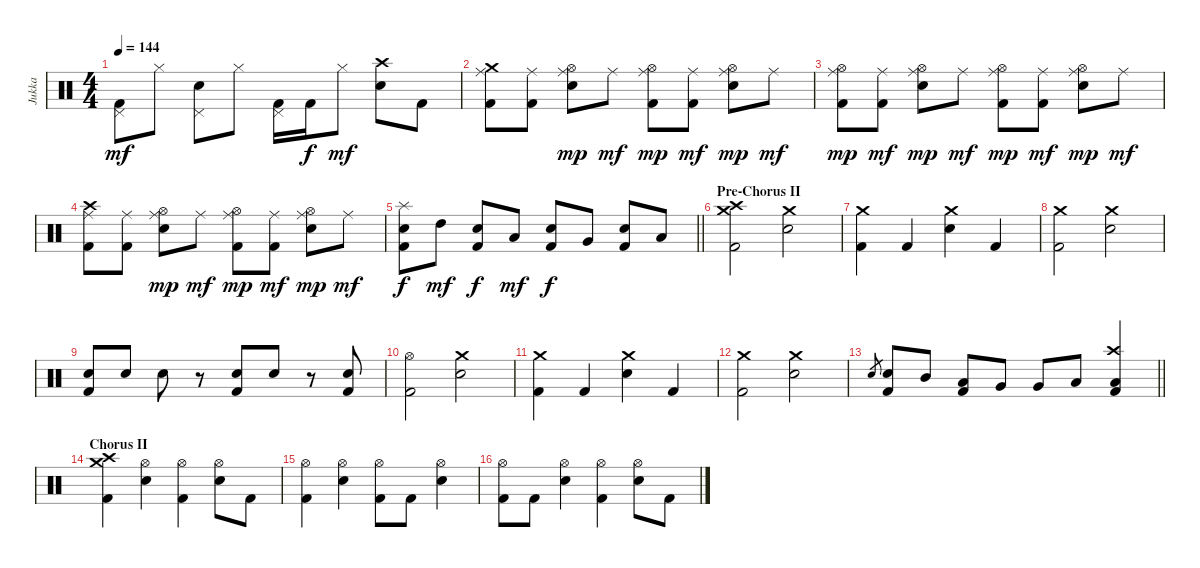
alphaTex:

\track ("Jukka" "Jukka") {instrument percussion}
\staff {score}
\articulation defaults
\ts (4 4)
\tempo 144
\clef neutral
\ks c
("Pedal Hi-Hat (hit)" "Kick (hit) 2").8{dy mf} "Hi-Hat (closed)".8 ("Pedal Hi-Hat (hit)" "Electric Snare (hit)").8 "Hi-Hat (closed)".8 ("Pedal Hi-Hat (hit)" "Kick (hit) 2").16 "Kick (hit) 2".16{dy f} "Hi-Hat (closed)".8{dy mf} ("Crash high (hit)" "Electric Snare (hit)").8 "Kick (hit) 2".8 |
("Ride (middle)" "Crash medium (hit)" "Kick (hit) 2").8 ("Ride (middle)" "Kick (hit) 2").8 ("Ride (middle)" "Hi-Hat (open)" "Electric Snare (hit)").8{dy mp} "Ride (middle)".8{dy mf} ("Ride (middle)" "Hi-Hat (open)" "Kick (hit) 2").8{dy mp} ("Ride (middle)" "Kick (hit) 2").8{dy mf} ("Ride (middle)" "Hi-Hat (open)" "Electric Snare (hit)").8{dy mp} "Ride (middle)".8{dy mf} |
("Ride (middle)" "Hi-Hat (open)" "Kick (hit) 2").8{dy mp} ("Ride (middle)" "Kick (hit) 2").8{dy mf} ("Ride (middle)" "Hi-Hat (open)" "Electric Snare (hit)").8{dy mp} "Ride (middle)".8{dy mf} ("Ride (middle)" "Hi-Hat (open)" "Kick (hit) 2").8{dy mp} ("Ride (middle)" "Kick (hit) 2").8{dy mf} ("Ride (middle)" "Hi-Hat (open)" "Electric Snare (hit)").8{dy mp} "Ride (middle)".8{dy mf} |
("Ride (middle)" "Crash high (hit)" "Kick (hit) 2").8 ("Ride (middle)" "Kick (hit) 2").8 ("Ride (middle)" "Hi-Hat (open)" "Electric Snare (hit)").8{dy mp} "Ride (middle)".8{dy mf} ("Ride (middle)" "Hi-Hat (open)" "Kick (hit) 2").8{dy mp} ("Ride (middle)" "Kick (hit) 2").8{dy mf} ("Ride (middle)" "Hi-Hat (open)" "Electric Snare (hit)").8{dy mp} "Ride (middle)".8{dy mf} |
\barLineRight lightlight
("Splash (hit)" "Electric Snare (hit)" "Kick (hit) 2").8{dy f} "High Tom (hit)".8{dy mf} ("Electric Snare (hit)" "Kick (hit) 2").8{dy f} "Low Tom (hit)".8{dy mf} ("Electric Snare (hit)" "Kick (hit) 2").8{dy f} "Very Low Tom (hit)".8 ("Electric Snare (hit)" "Kick (hit) 2").8 "Low Floor Tom (hit)".8 |
\section ("" "Pre-Chorus II")
("Crash high (hit)" "Crash medium (hit)" "Kick (hit) 2").2 ("Crash medium (hit)" "Electric Snare (hit)").2 |
("Crash medium (hit)" "Kick (hit) 2").4 "Kick (hit) 2".4 ("Crash medium (hit)" "Electric Snare (hit)").4 "Kick (hit) 2".4 |
("Crash medium (hit)" "Kick (hit) 2").2 ("Crash medium (hit)" "Electric Snare (hit)").2 |
("Electric Snare (hit)" "Kick (hit) 2").8 "Electric Snare (hit)".8 "Electric Snare (hit)".8 r.8 ("Electric Snare (hit)" "Kick (hit) 2").8 "Electric Snare (hit)".8 r.8 ("Electric Snare (hit)" "Kick (hit) 2").8 |
("Hi-Hat (open)" "Kick (hit) 2").2 ("Crash medium (hit)" "Electric Snare (hit)").2 |
("Crash medium (hit)" "Kick (hit) 2").4 "Kick (hit) 2".4 ("Crash medium (hit)" "Electric Snare (hit)").4 "Kick (hit) 2".4 |
("Crash medium (hit)" "Kick (hit) 2").2 ("Crash medium (hit)" "Electric Snare (hit)").2 |
\barLineRight lightlight "Electric Snare (hit)".8{gr}
("Electric Snare (hit)" "Kick (hit) 2").8 "Mid Tom (hit)".8 ("Low Tom (hit)" "Kick (hit) 2").8 "Very Low Tom (hit)".8 "Very Low Tom (hit)".8 "Low Floor Tom (hit)".8 ("Crash high (hit)" "Low Floor Tom (hit)" "Kick (hit) 2").4 |
\section ("" "Chorus II")
("Crash high (hit)" "Crash medium (hit)" "Kick (hit) 2").4 ("Hi-Hat (open)" "Electric Snare (hit)").4 ("Hi-Hat (open)" "Kick (hit) 2").4 ("Hi-Hat (open)" "Electric Snare (hit)").8 "Kick (hit) 2".8 |
("Hi-Hat (open)" "Kick (hit) 2").4 ("Hi-Hat (open)" "Electric Snare (hit)").4 ("Hi-Hat (open)" "Kick (hit) 2").8 "Kick (hit) 2".8 ("Hi-Hat (open)" "Electric Snare (hit)").4 |
("Hi-Hat (open)" "Kick (hit) 2").8 "Kick (hit) 2".8 ("Hi-Hat (open)" "Electric Snare (hit)").4 ("Hi-Hat (open)" "Kick (hit) 2").4 ("Hi-Hat (open)" "Electric Snare (hit)").8 "Kick (hit) 2".8
